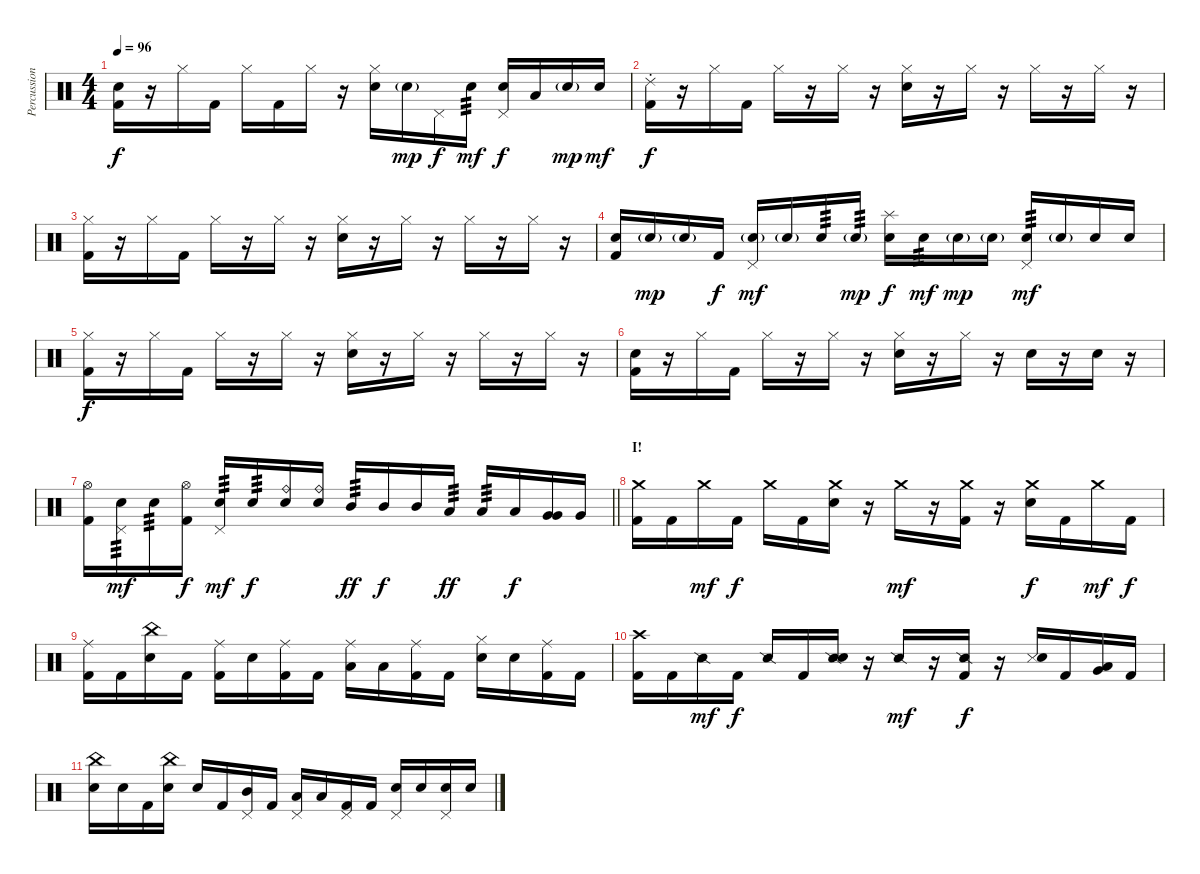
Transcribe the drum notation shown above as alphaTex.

\track ("Percussion" "Percussion") {instrument percussion}
\staff {score}
\articulation defaults
\ts (4 4)
\tempo 96
\clef neutral
\ks c
("Snare (hit)" "Kick (hit) 2").16{dy f} r.16 "Hi-Hat (closed)".16 "Kick (hit) 2".16 "Hi-Hat (closed)".16 "Kick (hit) 2".16 "Hi-Hat (closed)".16 r.16 ("Hi-Hat (closed)" "Snare (hit) 2").16 "Snare (hit) 2"{g}.16{dy mp} "Pedal Hi-Hat (hit)".16{dy f} "Snare (hit) 2".16{tp 3 dy mf} ("Pedal Hi-Hat (hit)" "Snare (hit) 2").16{dy f} "Low Tom (hit)".16 "Snare (hit) 2"{g}.16{dy mp} "Snare (hit) 2".16{dy mf} |
("Ride (choke) 2" "Kick (hit) 2").16{dy f} r.16 "Hi-Hat (closed)".16 "Kick (hit) 2".16 "Hi-Hat (closed)".16 r.16 "Hi-Hat (closed)".16 r.16 ("Hi-Hat (closed)" "Snare (hit) 2").16 r.16 "Hi-Hat (closed)".16 r.16 "Hi-Hat (closed)".16 r.16 "Hi-Hat (closed)".16 r.16 |
("Hi-Hat (closed)" "Kick (hit) 2").16 r.16 "Hi-Hat (closed)".16 "Kick (hit) 2".16 "Hi-Hat (closed)".16 r.16 "Hi-Hat (closed)".16 r.16 ("Hi-Hat (closed)" "Snare (hit) 2").16 r.16 "Hi-Hat (closed)".16 r.16 "Hi-Hat (closed)".16 r.16 "Hi-Hat (closed)".16 r.16 |
("Snare (hit)" "Kick (hit) 2").16 "Snare (hit) 2"{g}.16{dy mp} "Snare (hit) 2"{g}.16 "Kick (hit) 2".16{dy f} ("Pedal Hi-Hat (hit)" "Snare (hit) 2"{g}).16{dy mf} "Snare (hit) 2"{g}.16 "Snare (hit) 2".16{tp 3} "Snare (hit) 2"{g}.16{tp 3 dy mp} ("Splash (hit)" "Snare (hit) 2").16{dy f} "Snare (hit) 2".16{tp 3 dy mf} "Snare (hit) 2"{g}.16{dy mp} "Snare (hit) 2"{g}.16 ("Pedal Hi-Hat (hit)" "Snare (hit) 2").16{tp 3 dy mf} "Snare (hit) 2"{g}.16 "Snare (hit) 2".16 "Snare (hit) 2".16 |
("Hi-Hat (closed)" "Kick (hit) 2").16{dy f} r.16 "Hi-Hat (closed)".16 "Kick (hit) 2".16 "Hi-Hat (closed)".16 r.16 "Hi-Hat (closed)".16 r.16 ("Hi-Hat (closed)" "Snare (hit) 2").16 r.16 "Hi-Hat (closed)".16 r.16 "Hi-Hat (closed)".16 r.16 "Hi-Hat (closed)".16 r.16 |
("Snare (hit)" "Kick (hit) 2").16 r.16 "Hi-Hat (closed)".16 "Kick (hit) 2".16 "Hi-Hat (closed)".16 r.16 "Hi-Hat (closed)".16 r.16 ("Hi-Hat (closed)" "Snare (hit) 2").16 r.16 "Hi-Hat (closed)".16 r.16 "Snare (hit)".16 r.16 "Snare (hit)".16 r.16 |
\barLineRight lightlight
("Hi-Hat (open)" "Kick (hit) 2").16 ("Pedal Hi-Hat (hit)" "Snare (hit) 2").16{tp 3 dy mf} "Snare (hit) 2".16{tp 3} ("Hi-Hat (open)" "Kick (hit) 2").16{dy f} ("Pedal Hi-Hat (hit)" "Snare (hit) 2").16{tp 3 dy mf} "Snare (hit) 2".16{tp 3 dy f} ("Ride (bell)" "Snare (hit) 2").16 ("Ride (bell)" "Snare (hit) 2").16 "Mid Tom (hit)".16{tp 3 dy ff} "Mid Tom (hit)".16{dy f} "Mid Tom (hit)".16 "Low Tom (hit)".16{tp 3 dy ff} "Low Tom (hit)".16{tp 3} "Low Tom (hit)".16{dy f} ("Very Low Tom (hit)" "Very Low Tom (hit)").16{bu 60} "Very Low Tom (hit)".16 |
\section ("" "I!")
("Crash medium (hit)" "Kick (hit) 2").16 "Kick (hit) 2".16 "Crash medium (hit)".16{dy mf} "Kick (hit) 2".16{dy f} "Crash medium (hit)".16 "Kick (hit) 2".16 ("Crash medium (hit)" "Snare (hit) 2").16 r.16 "Crash medium (hit)".16{dy mf} r.16 ("Crash medium (hit)" "Kick (hit) 2").16 r.16 ("Crash medium (hit)" "Snare (hit) 2").16{dy f} "Kick (hit) 2".16 "Crash medium (hit)".16{dy mf} "Kick (hit) 2".16{dy f} |
("Ride (middle)" "Kick (hit) 2").16 "Kick (hit) 2".16 ("China (hit)" "Snare (hit) 2").16 "Kick (hit) 2".16 ("Ride (middle)" "Kick (hit) 2").16 "Snare (hit) 2".16 ("Ride (middle)" "Kick (hit) 2").16 "Kick (hit) 2".16 ("Ride (middle)" "Low Tom (hit)").16 "Low Tom (hit)".16 ("Ride (middle)" "Kick (hit) 2").16 "Kick (hit) 2".16 ("Hi-Hat (closed)" "Snare (hit) 2").16 "Snare (hit) 2".16 ("Ride (middle)" "Kick (hit) 2").16 "Kick (hit) 2".16 |
("Crash high (hit)" "Kick (hit) 2").16 "Kick (hit) 2".16 "Snare (side stick) 2".16{dy mf} "Kick (hit) 2".16{dy f} "Snare (side stick) 2".16 "Kick (hit) 2".16 ("Snare (side stick) 2" "Snare (hit) 2").16 r.16 "Snare (side stick) 2".16{dy mf} r.16 ("Snare (side stick) 2" "Kick (hit) 2").16{dy f} r.16 ("Metronome (hit)" "Snare (hit) 2").16{bu 60} "Kick (hit) 2".16 ("Low Tom (hit)" "Very Low Tom (hit)").16{bu 60} "Kick (hit) 2".16 |
("China (hit)" "Snare (hit) 2").16 "Snare (hit) 2".16 "Kick (hit) 2".16 ("China (hit)" "Snare (hit) 2").16 "Snare (hit) 2".16 "Kick (hit) 2".16 ("Pedal Hi-Hat (hit)" "Mid Tom (hit)").16 "Kick (hit) 2".16 ("Pedal Hi-Hat (hit)" "Low Tom (hit)").16 "Low Tom (hit)".16 ("Pedal Hi-Hat (hit)" "Kick (hit) 2").16 "Kick (hit) 2".16 ("Pedal Hi-Hat (hit)" "Snare (hit) 2").16 "Snare (hit) 2".16 ("Pedal Hi-Hat (hit)" "Snare (hit) 2").16 "Snare (hit) 2".16
